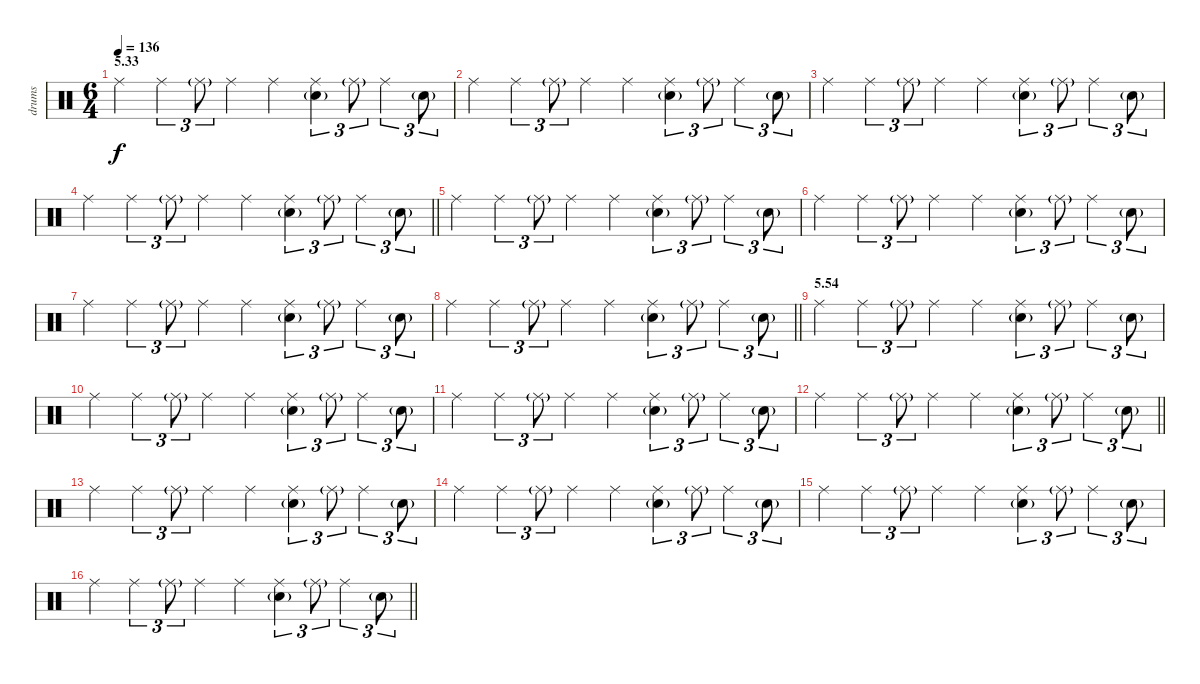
\track ("drums" "drums") {instrument percussion}
\staff {score}
\articulation defaults
\ts (6 4)
\section ("" "5.33")
\tempo 136
\clef neutral
\ks c "Ride (middle)".4{dy f} "Ride (middle)".4{tu (3 2)} "Ride (middle)"{g}.8{tu (3 2)} "Ride (middle)".4 "Ride (middle)".4
("Ride (middle)" "Electric Snare (hit)"{g}).4{tu (3 2)} "Ride (middle)"{g}.8{tu (3 2)} "Ride (middle)".4{tu (3 2)} "Electric Snare (hit)"{g}.8{tu (3 2)} |
"Ride (middle)".4 "Ride (middle)".4{tu (3 2)} "Ride (middle)"{g}.8{tu (3 2)} "Ride (middle)".4 "Ride (middle)".4 ("Ride (middle)" "Electric Snare (hit)"{g}).4{tu (3 2)} "Ride (middle)"{g}.8{tu (3 2)} "Ride (middle)".4{tu (3 2)} "Electric Snare (hit)"{g}.8{tu (3 2)} |
"Ride (middle)".4 "Ride (middle)".4{tu (3 2)} "Ride (middle)"{g}.8{tu (3 2)} "Ride (middle)".4 "Ride (middle)".4 ("Ride (middle)" "Electric Snare (hit)"{g}).4{tu (3 2)} "Ride (middle)"{g}.8{tu (3 2)} "Ride (middle)".4{tu (3 2)} "Electric Snare (hit)"{g}.8{tu (3 2)} |
\barLineRight lightlight "Ride (middle)".4 "Ride (middle)".4{tu (3 2)} "Ride (middle)"{g}.8{tu (3 2)} "Ride (middle)".4 "Ride (middle)".4
("Ride (middle)" "Electric Snare (hit)"{g}).4{tu (3 2)} "Ride (middle)"{g}.8{tu (3 2)} "Ride (middle)".4{tu (3 2)} "Electric Snare (hit)"{g}.8{tu (3 2)} |
"Ride (middle)".4 "Ride (middle)".4{tu (3 2)} "Ride (middle)"{g}.8{tu (3 2)} "Ride (middle)".4 "Ride (middle)".4 ("Ride (middle)" "Electric Snare (hit)"{g}).4{tu (3 2)} "Ride (middle)"{g}.8{tu (3 2)} "Ride (middle)".4{tu (3 2)} "Electric Snare (hit)"{g}.8{tu (3 2)} |
"Ride (middle)".4 "Ride (middle)".4{tu (3 2)} "Ride (middle)"{g}.8{tu (3 2)} "Ride (middle)".4 "Ride (middle)".4 ("Ride (middle)" "Electric Snare (hit)"{g}).4{tu (3 2)} "Ride (middle)"{g}.8{tu (3 2)} "Ride (middle)".4{tu (3 2)} "Electric Snare (hit)"{g}.8{tu (3 2)} |
"Ride (middle)".4 "Ride (middle)".4{tu (3 2)} "Ride (middle)"{g}.8{tu (3 2)} "Ride (middle)".4 "Ride (middle)".4 ("Ride (middle)" "Electric Snare (hit)"{g}).4{tu (3 2)} "Ride (middle)"{g}.8{tu (3 2)} "Ride (middle)".4{tu (3 2)} "Electric Snare (hit)"{g}.8{tu (3 2)} |
\barLineRight lightlight "Ride (middle)".4 "Ride (middle)".4{tu (3 2)} "Ride (middle)"{g}.8{tu (3 2)} "Ride (middle)".4 "Ride (middle)".4
("Ride (middle)" "Electric Snare (hit)"{g}).4{tu (3 2)} "Ride (middle)"{g}.8{tu (3 2)} "Ride (middle)".4{tu (3 2)} "Electric Snare (hit)"{g}.8{tu (3 2)} |
\section ("" "5.54")
"Ride (middle)".4 "Ride (middle)".4{tu (3 2)} "Ride (middle)"{g}.8{tu (3 2)} "Ride (middle)".4 "Ride (middle)".4 ("Ride (middle)" "Electric Snare (hit)"{g}).4{tu (3 2)} "Ride (middle)"{g}.8{tu (3 2)} "Ride (middle)".4{tu (3 2)} "Electric Snare (hit)"{g}.8{tu (3 2)} |
"Ride (middle)".4 "Ride (middle)".4{tu (3 2)} "Ride (middle)"{g}.8{tu (3 2)} "Ride (middle)".4 "Ride (middle)".4 ("Ride (middle)" "Electric Snare (hit)"{g}).4{tu (3 2)} "Ride (middle)"{g}.8{tu (3 2)} "Ride (middle)".4{tu (3 2)} "Electric Snare (hit)"{g}.8{tu (3 2)} |
"Ride (middle)".4 "Ride (middle)".4{tu (3 2)} "Ride (middle)"{g}.8{tu (3 2)} "Ride (middle)".4 "Ride (middle)".4 ("Ride (middle)" "Electric Snare (hit)"{g}).4{tu (3 2)} "Ride (middle)"{g}.8{tu (3 2)} "Ride (middle)".4{tu (3 2)} "Electric Snare (hit)"{g}.8{tu (3 2)} |
\barLineRight lightlight "Ride (middle)".4 "Ride (middle)".4{tu (3 2)} "Ride (middle)"{g}.8{tu (3 2)} "Ride (middle)".4 "Ride (middle)".4
("Ride (middle)" "Electric Snare (hit)"{g}).4{tu (3 2)} "Ride (middle)"{g}.8{tu (3 2)} "Ride (middle)".4{tu (3 2)} "Electric Snare (hit)"{g}.8{tu (3 2)} |
"Ride (middle)".4 "Ride (middle)".4{tu (3 2)} "Ride (middle)"{g}.8{tu (3 2)} "Ride (middle)".4 "Ride (middle)".4 ("Ride (middle)" "Electric Snare (hit)"{g}).4{tu (3 2)} "Ride (middle)"{g}.8{tu (3 2)} "Ride (middle)".4{tu (3 2)} "Electric Snare (hit)"{g}.8{tu (3 2)} |
"Ride (middle)".4 "Ride (middle)".4{tu (3 2)} "Ride (middle)"{g}.8{tu (3 2)} "Ride (middle)".4 "Ride (middle)".4 ("Ride (middle)" "Electric Snare (hit)"{g}).4{tu (3 2)} "Ride (middle)"{g}.8{tu (3 2)} "Ride (middle)".4{tu (3 2)} "Electric Snare (hit)"{g}.8{tu (3 2)} |
"Ride (middle)".4 "Ride (middle)".4{tu (3 2)} "Ride (middle)"{g}.8{tu (3 2)} "Ride (middle)".4 "Ride (middle)".4 ("Ride (middle)" "Electric Snare (hit)"{g}).4{tu (3 2)} "Ride (middle)"{g}.8{tu (3 2)} "Ride (middle)".4{tu (3 2)} "Electric Snare (hit)"{g}.8{tu (3 2)} |
\barLineRight lightlight "Ride (middle)".4 "Ride (middle)".4{tu (3 2)} "Ride (middle)"{g}.8{tu (3 2)} "Ride (middle)".4 "Ride (middle)".4
("Ride (middle)" "Electric Snare (hit)"{g}).4{tu (3 2)} "Ride (middle)"{g}.8{tu (3 2)} "Ride (middle)".4{tu (3 2)} "Electric Snare (hit)"{g}.8{tu (3 2)}
